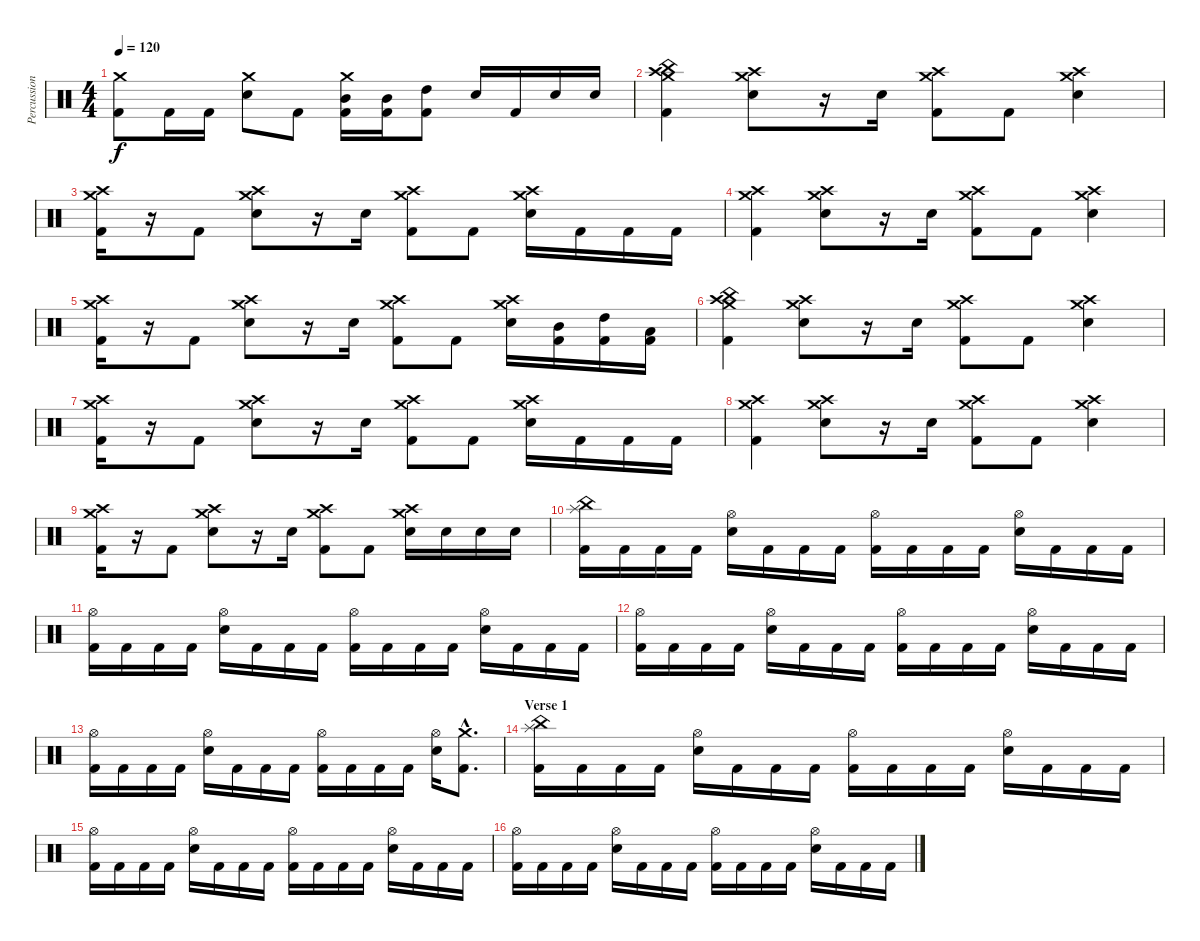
\track ("Percussion" "Percussion") {instrument percussion}
\staff {score}
\articulation defaults
\ts (4 4)
\tempo 120
\clef neutral
\ks c
("Crash medium (hit)" "Kick (hit) 2").8{dy f} "Kick (hit) 2".16 "Kick (hit) 2".16 ("Crash medium (hit)" "Electric Snare (hit)").8 "Kick (hit) 2".8 ("Crash medium (hit)" "Mid Tom (hit)" "Kick (hit) 2").16 ("Mid Tom (hit)" "Kick (hit) 2").16 ("High Tom (hit)" "Kick (hit) 2").8 "Electric Snare (hit)".16 "Kick (hit) 2".16 "Electric Snare (hit)".16 "Electric Snare (hit)".16 |
("Crash high (hit)" "Crash medium (hit)" "China (hit)" "Kick (hit) 2").4 ("Crash high (hit)" "Crash medium (hit)" "Electric Snare (hit)").8 r.16 "Electric Snare (hit)".16 ("Crash high (hit)" "Crash medium (hit)" "Kick (hit) 2").8 "Kick (hit) 2".8 ("Crash high (hit)" "Crash medium (hit)" "Electric Snare (hit)").4 |
("Crash high (hit)" "Crash medium (hit)" "Kick (hit) 2").16 r.16 "Kick (hit) 2".8 ("Crash high (hit)" "Crash medium (hit)" "Electric Snare (hit)").8 r.16 "Electric Snare (hit)".16 ("Crash high (hit)" "Crash medium (hit)" "Kick (hit) 2").8 "Kick (hit) 2".8 ("Crash high (hit)" "Crash medium (hit)" "Electric Snare (hit)").16 "Kick (hit) 2".16 "Kick (hit) 2".16 "Kick (hit) 2".16 |
("Crash high (hit)" "Crash medium (hit)" "Kick (hit) 2").4 ("Crash high (hit)" "Crash medium (hit)" "Electric Snare (hit)").8 r.16 "Electric Snare (hit)".16 ("Crash high (hit)" "Crash medium (hit)" "Kick (hit) 2").8 "Kick (hit) 2".8 ("Crash high (hit)" "Crash medium (hit)" "Electric Snare (hit)").4 |
("Crash high (hit)" "Crash medium (hit)" "Kick (hit) 2").16 r.16 "Kick (hit) 2".8 ("Crash high (hit)" "Crash medium (hit)" "Electric Snare (hit)").8 r.16 "Electric Snare (hit)".16 ("Crash high (hit)" "Crash medium (hit)" "Kick (hit) 2").8 "Kick (hit) 2".8 ("Crash high (hit)" "Crash medium (hit)" "Electric Snare (hit)").16 ("Mid Tom (hit)" "Kick (hit) 2").16 ("High Tom (hit)" "Kick (hit) 2").16 ("Low Tom (hit)" "Kick (hit) 2").16 |
("Crash high (hit)" "Crash medium (hit)" "China (hit)" "Kick (hit) 2").4 ("Crash high (hit)" "Crash medium (hit)" "Electric Snare (hit)").8 r.16 "Electric Snare (hit)".16 ("Crash high (hit)" "Crash medium (hit)" "Kick (hit) 2").8 "Kick (hit) 2".8 ("Crash high (hit)" "Crash medium (hit)" "Electric Snare (hit)").4 |
("Crash high (hit)" "Crash medium (hit)" "Kick (hit) 2").16 r.16 "Kick (hit) 2".8 ("Crash high (hit)" "Crash medium (hit)" "Electric Snare (hit)").8 r.16 "Electric Snare (hit)".16 ("Crash high (hit)" "Crash medium (hit)" "Kick (hit) 2").8 "Kick (hit) 2".8 ("Crash high (hit)" "Crash medium (hit)" "Electric Snare (hit)").16 "Kick (hit) 2".16 "Kick (hit) 2".16 "Kick (hit) 2".16 |
("Crash high (hit)" "Crash medium (hit)" "Kick (hit) 2").4 ("Crash high (hit)" "Crash medium (hit)" "Electric Snare (hit)").8 r.16 "Electric Snare (hit)".16 ("Crash high (hit)" "Crash medium (hit)" "Kick (hit) 2").8 "Kick (hit) 2".8 ("Crash high (hit)" "Crash medium (hit)" "Electric Snare (hit)").4 |
("Crash high (hit)" "Crash medium (hit)" "Kick (hit) 2").16 r.16 "Kick (hit) 2".8 ("Crash high (hit)" "Crash medium (hit)" "Electric Snare (hit)").8 r.16 "Electric Snare (hit)".16 ("Crash high (hit)" "Crash medium (hit)" "Kick (hit) 2").8 "Kick (hit) 2".8 ("Crash high (hit)" "Crash medium (hit)" "Electric Snare (hit)").16 "Electric Snare (hit)".16 "Electric Snare (hit)".16 "Electric Snare (hit)".16 |
("China (hit)" "Splash (hit)" "Kick (hit) 2").16 "Kick (hit) 2".16 "Kick (hit) 2".16 "Kick (hit) 2".16 ("Hi-Hat (open)" "Electric Snare (hit)").16 "Kick (hit) 2".16 "Kick (hit) 2".16 "Kick (hit) 2".16 ("Hi-Hat (open)" "Kick (hit) 2").16 "Kick (hit) 2".16 "Kick (hit) 2".16 "Kick (hit) 2".16 ("Hi-Hat (open)" "Electric Snare (hit)").16 "Kick (hit) 2".16 "Kick (hit) 2".16 "Kick (hit) 2".16 |
("Hi-Hat (open)" "Kick (hit) 2").16 "Kick (hit) 2".16 "Kick (hit) 2".16 "Kick (hit) 2".16 ("Hi-Hat (open)" "Electric Snare (hit)").16 "Kick (hit) 2".16 "Kick (hit) 2".16 "Kick (hit) 2".16 ("Hi-Hat (open)" "Kick (hit) 2").16 "Kick (hit) 2".16 "Kick (hit) 2".16 "Kick (hit) 2".16 ("Hi-Hat (open)" "Electric Snare (hit)").16 "Kick (hit) 2".16 "Kick (hit) 2".16 "Kick (hit) 2".16 |
("Hi-Hat (open)" "Kick (hit) 2").16 "Kick (hit) 2".16 "Kick (hit) 2".16 "Kick (hit) 2".16 ("Hi-Hat (open)" "Electric Snare (hit)").16 "Kick (hit) 2".16 "Kick (hit) 2".16 "Kick (hit) 2".16 ("Hi-Hat (open)" "Kick (hit) 2").16 "Kick (hit) 2".16 "Kick (hit) 2".16 "Kick (hit) 2".16 ("Hi-Hat (open)" "Electric Snare (hit)").16 "Kick (hit) 2".16 "Kick (hit) 2".16 "Kick (hit) 2".16 |
("Hi-Hat (open)" "Kick (hit) 2").16 "Kick (hit) 2".16 "Kick (hit) 2".16 "Kick (hit) 2".16 ("Hi-Hat (open)" "Electric Snare (hit)").16 "Kick (hit) 2".16 "Kick (hit) 2".16 "Kick (hit) 2".16 ("Hi-Hat (open)" "Kick (hit) 2").16 "Kick (hit) 2".16 "Kick (hit) 2".16 "Kick (hit) 2".16 ("Hi-Hat (open)" "Electric Snare (hit)").16 ("Crash medium (hit)"{hac} "Kick (hit) 2"{hac}).8{d} |
\section ("" "Verse 1 ")
("China (hit)" "Splash (hit)" "Kick (hit) 2").16 "Kick (hit) 2".16 "Kick (hit) 2".16 "Kick (hit) 2".16 ("Hi-Hat (open)" "Electric Snare (hit)").16 "Kick (hit) 2".16 "Kick (hit) 2".16 "Kick (hit) 2".16 ("Hi-Hat (open)" "Kick (hit) 2").16 "Kick (hit) 2".16 "Kick (hit) 2".16 "Kick (hit) 2".16 ("Hi-Hat (open)" "Electric Snare (hit)").16 "Kick (hit) 2".16 "Kick (hit) 2".16 "Kick (hit) 2".16 |
("Hi-Hat (open)" "Kick (hit) 2").16 "Kick (hit) 2".16 "Kick (hit) 2".16 "Kick (hit) 2".16 ("Hi-Hat (open)" "Electric Snare (hit)").16 "Kick (hit) 2".16 "Kick (hit) 2".16 "Kick (hit) 2".16 ("Hi-Hat (open)" "Kick (hit) 2").16 "Kick (hit) 2".16 "Kick (hit) 2".16 "Kick (hit) 2".16 ("Hi-Hat (open)" "Electric Snare (hit)").16 "Kick (hit) 2".16 "Kick (hit) 2".16 "Kick (hit) 2".16 |
("Hi-Hat (open)" "Kick (hit) 2").16 "Kick (hit) 2".16 "Kick (hit) 2".16 "Kick (hit) 2".16 ("Hi-Hat (open)" "Electric Snare (hit)").16 "Kick (hit) 2".16 "Kick (hit) 2".16 "Kick (hit) 2".16 ("Hi-Hat (open)" "Kick (hit) 2").16 "Kick (hit) 2".16 "Kick (hit) 2".16 "Kick (hit) 2".16 ("Hi-Hat (open)" "Electric Snare (hit)").16 "Kick (hit) 2".16 "Kick (hit) 2".16 "Kick (hit) 2".16
